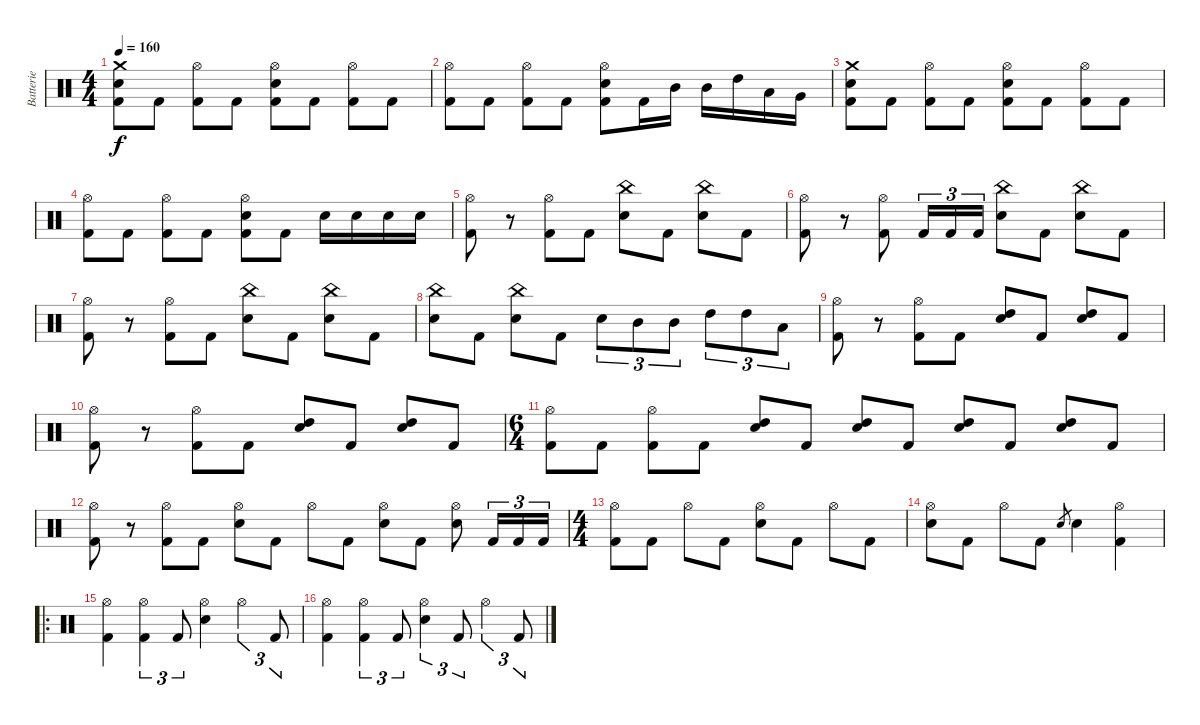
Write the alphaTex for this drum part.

\track ("Batterie" "Batterie") {instrument percussion}
\staff {score}
\articulation defaults
\ts (4 4)
\tempo 160
\clef neutral
\ks c
("Crash medium (hit)" "Electric Snare (hit)" "Kick (hit) 2").8{dy f} "Kick (hit) 2".8 ("Hi-Hat (open)" "Kick (hit) 2").8 "Kick (hit) 2".8 ("Hi-Hat (open)" "Electric Snare (hit)" "Kick (hit) 2").8 "Kick (hit) 2".8 ("Hi-Hat (open)" "Kick (hit) 2").8 "Kick (hit) 2".8 |
("Hi-Hat (open)" "Kick (hit) 2").8 "Kick (hit) 2".8 ("Hi-Hat (open)" "Kick (hit) 2").8 "Kick (hit) 2".8 ("Hi-Hat (open)" "Electric Snare (hit)" "Kick (hit) 2").8 "Kick (hit) 2".16 "Mid Tom (hit)".16 "Mid Tom (hit)".16 "High Tom (hit)".16 "Low Tom (hit)".16 "Very Low Tom (hit)".16 |
("Crash medium (hit)" "Electric Snare (hit)" "Kick (hit) 2").8 "Kick (hit) 2".8 ("Hi-Hat (open)" "Kick (hit) 2").8 "Kick (hit) 2".8 ("Hi-Hat (open)" "Electric Snare (hit)" "Kick (hit) 2").8 "Kick (hit) 2".8 ("Hi-Hat (open)" "Kick (hit) 2").8 "Kick (hit) 2".8 |
("Hi-Hat (open)" "Kick (hit) 2").8 "Kick (hit) 2".8 ("Hi-Hat (open)" "Kick (hit) 2").8 "Kick (hit) 2".8 ("Hi-Hat (open)" "Electric Snare (hit)" "Kick (hit) 2").8 "Kick (hit) 2".8 "Electric Snare (hit)".16 "Electric Snare (hit)".16 "Electric Snare (hit)".16 "Electric Snare (hit)".16 |
("Hi-Hat (open)" "Kick (hit) 2").8 r.8 ("Hi-Hat (open)" "Kick (hit) 2").8 "Kick (hit) 2".8 ("China (hit)" "Electric Snare (hit)").8 "Kick (hit) 2".8 ("China (hit)" "Electric Snare (hit)").8 "Kick (hit) 2".8 |
("Hi-Hat (open)" "Kick (hit) 2").8 r.8 ("Hi-Hat (open)" "Kick (hit) 2").8 "Kick (hit) 2".16{tu (3 2)} "Kick (hit) 2".16{tu (3 2)} "Kick (hit) 2".16{tu (3 2)} ("China (hit)" "Electric Snare (hit)").8 "Kick (hit) 2".8 ("China (hit)" "Electric Snare (hit)").8 "Kick (hit) 2".8 |
("Hi-Hat (open)" "Kick (hit) 2").8 r.8 ("Hi-Hat (open)" "Kick (hit) 2").8 "Kick (hit) 2".8 ("China (hit)" "Electric Snare (hit)").8 "Kick (hit) 2".8 ("China (hit)" "Electric Snare (hit)").8 "Kick (hit) 2".8 |
("China (hit)" "Electric Snare (hit)").8 "Kick (hit) 2".8 ("China (hit)" "Electric Snare (hit)").8 "Kick (hit) 2".8 "Electric Snare (hit)".8{tu (3 2)} "Mid Tom (hit)".8{tu (3 2)} "Mid Tom (hit)".8{tu (3 2)} "High Tom (hit)".8{tu (3 2)} "High Tom (hit)".8{tu (3 2)} "Low Tom (hit)".8{tu (3 2)} |
("Hi-Hat (open)" "Kick (hit) 2").8 r.8 ("Hi-Hat (open)" "Kick (hit) 2").8 "Kick (hit) 2".8 ("High Tom (hit)" "Electric Snare (hit)").8 "Kick (hit) 2".8 ("High Tom (hit)" "Electric Snare (hit)").8 "Kick (hit) 2".8 |
("Hi-Hat (open)" "Kick (hit) 2").8 r.8 ("Hi-Hat (open)" "Kick (hit) 2").8 "Kick (hit) 2".8 ("High Tom (hit)" "Electric Snare (hit)").8 "Kick (hit) 2".8 ("High Tom (hit)" "Electric Snare (hit)").8 "Kick (hit) 2".8 |
\ts (6 4)
("Hi-Hat (open)" "Kick (hit) 2").8 "Kick (hit) 2".8 ("Hi-Hat (open)" "Kick (hit) 2").8 "Kick (hit) 2".8 ("High Tom (hit)" "Electric Snare (hit)").8 "Kick (hit) 2".8 ("High Tom (hit)" "Electric Snare (hit)").8 "Kick (hit) 2".8 ("High Tom (hit)" "Electric Snare (hit)").8 "Kick (hit) 2".8 ("High Tom (hit)" "Electric Snare (hit)").8 "Kick (hit) 2".8 |
("Hi-Hat (open)" "Kick (hit) 2").8 r.8 ("Hi-Hat (open)" "Kick (hit) 2").8 "Kick (hit) 2".8 ("Hi-Hat (open)" "Electric Snare (hit)").8 "Kick (hit) 2".8 "Hi-Hat (open)".8 "Kick (hit) 2".8 ("Hi-Hat (open)" "Electric Snare (hit)").8 "Kick (hit) 2".8 ("Hi-Hat (open)" "Electric Snare (hit)").8 "Kick (hit) 2".16{tu (3 2)} "Kick (hit) 2".16{tu (3 2)} "Kick (hit) 2".16{tu (3 2)} |
\ts (4 4)
("Hi-Hat (open)" "Kick (hit) 2").8 "Kick (hit) 2".8 "Hi-Hat (open)".8 "Kick (hit) 2".8 ("Hi-Hat (open)" "Electric Snare (hit)").8 "Kick (hit) 2".8 "Hi-Hat (open)".8 "Kick (hit) 2".8 |
("Hi-Hat (open)" "Electric Snare (hit)").8 "Kick (hit) 2".8 "Hi-Hat (open)".8 "Kick (hit) 2".8 "Electric Snare (hit)".8{gr} "Electric Snare (hit)".4 ("Hi-Hat (open)" "Kick (hit) 2").4 |
\ro
("Hi-Hat (open)" "Kick (hit) 2").4 ("Hi-Hat (open)" "Kick (hit) 2").4{tu (3 2)} "Kick (hit) 2".8{tu (3 2)} ("Hi-Hat (open)" "Electric Snare (hit)").4 "Hi-Hat (open)".4{tu (3 2)} "Kick (hit) 2".8{tu (3 2)} |
("Hi-Hat (open)" "Kick (hit) 2").4 ("Hi-Hat (open)" "Kick (hit) 2").4{tu (3 2)} "Kick (hit) 2".8{tu (3 2)} ("Hi-Hat (open)" "Electric Snare (hit)").4{tu (3 2)} "Kick (hit) 2".8{tu (3 2)} "Hi-Hat (open)".4{tu (3 2)} "Kick (hit) 2".8{tu (3 2)}
